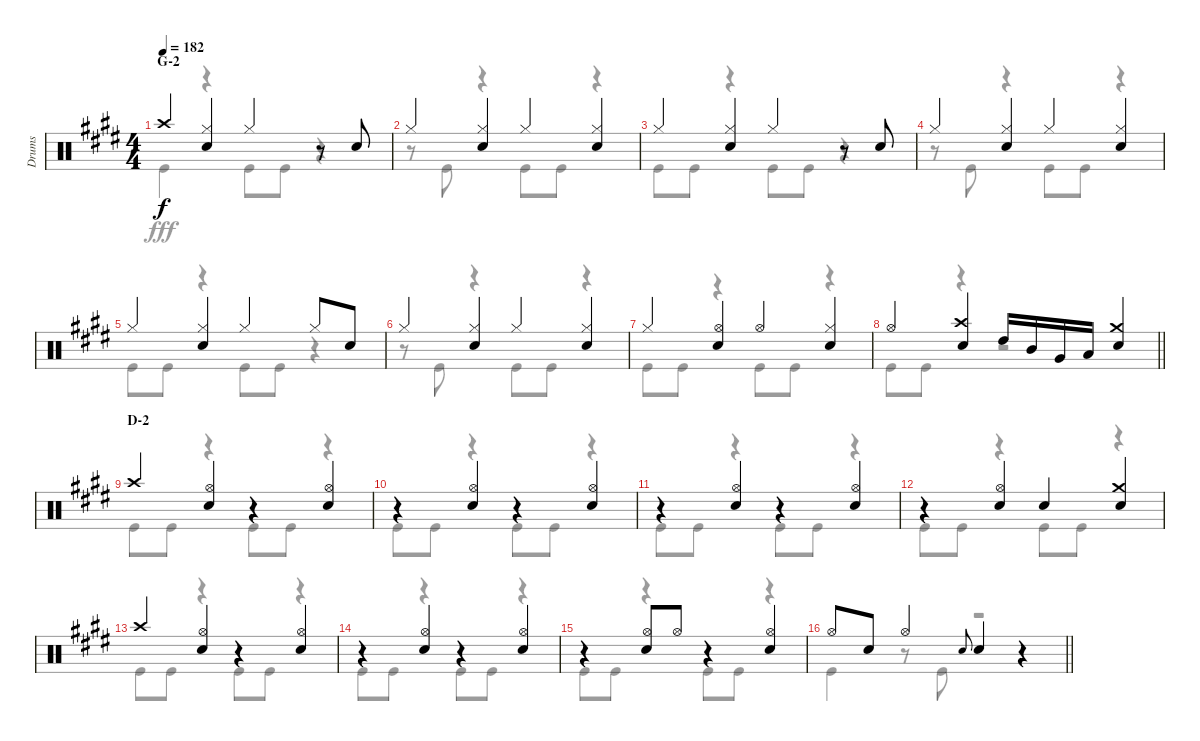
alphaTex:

\track ("Drums" "Drums") {instrument percussion}
\staff {score}
\articulation defaults
\voice
\ts (4 4)
\section ("" "G-2")
\tempo 182
\clef neutral
\ks e "Crash high (hit)".4{dy f}
("Hi-Hat (closed)" "Snare (hit) 2").4 "Hi-Hat (closed)".4 r.8 "Snare (hit) 2".8 |
"Hi-Hat (closed)".4 ("Hi-Hat (closed)" "Snare (hit) 2").4 "Hi-Hat (closed)".4 ("Hi-Hat (closed)" "Snare (hit) 2").4 |
"Hi-Hat (closed)".4 ("Hi-Hat (closed)" "Snare (hit) 2").4 "Hi-Hat (closed)".4 r.8 "Snare (hit) 2".8 |
"Hi-Hat (closed)".4 ("Hi-Hat (closed)" "Snare (hit) 2").4 "Hi-Hat (closed)".4 ("Hi-Hat (closed)" "Snare (hit) 2").4 |
"Hi-Hat (closed)".4 ("Hi-Hat (closed)" "Snare (hit) 2").4 "Hi-Hat (closed)".4 "Hi-Hat (closed)".8 "Snare (hit) 2".8 |
"Hi-Hat (closed)".4 ("Hi-Hat (closed)" "Snare (hit) 2").4 "Hi-Hat (closed)".4 ("Hi-Hat (closed)" "Snare (hit) 2").4 |
"Hi-Hat (closed)".4 ("Hi-Hat (open)" "Snare (hit) 2").4 "Hi-Hat (open)".4 ("Hi-Hat (closed)" "Snare (hit) 2").4 |
\barLineRight lightlight "Hi-Hat (open)".4
("Crash high (hit)" "Snare (hit) 2").4 "High Tom (hit)".16 "Mid Tom (hit)".16 "Very Low Tom (hit)".16 "Low Floor Tom (hit)".16 ("Crash medium (hit)" "Snare (hit) 2").4 |
\section ("" "D-2")
"Crash high (hit)".4 ("Hi-Hat (open)" "Snare (hit) 2").4 r.4 ("Hi-Hat (open)" "Snare (hit) 2").4 |
r.4 ("Hi-Hat (open)" "Snare (hit) 2").4 r.4 ("Hi-Hat (open)" "Snare (hit) 2").4 |
r.4 ("Hi-Hat (open)" "Snare (hit) 2").4 r.4 ("Hi-Hat (open)" "Snare (hit) 2").4 |
r.4 ("Hi-Hat (open)" "Snare (hit) 2").4 "Snare (hit) 2".4 ("Crash medium (hit)" "Snare (hit) 2").4 |
"Crash high (hit)".4 ("Hi-Hat (open)" "Snare (hit) 2").4 r.4 ("Hi-Hat (open)" "Snare (hit) 2").4 |
r.4 ("Hi-Hat (open)" "Snare (hit) 2").4 r.4 ("Hi-Hat (open)" "Snare (hit) 2").4 |
r.4 ("Hi-Hat (open)" "Snare (hit) 2").8 "Hi-Hat (open)".8 r.4 ("Hi-Hat (open)" "Snare (hit) 2").4 |
\barLineRight lightlight "Hi-Hat (open)".8 "Snare (hit) 2".8 "Hi-Hat (open)".4 "Snare (hit) 2".8{gr onbeat} "Snare (hit) 2".4
r.4
\voice
\clef neutral
\ottava regular
\simile none
\ks e "Kick (hit)".4{dy fff}
r.4 "Kick (hit)".8 "Kick (hit)".8 r.4 |
r.8 "Kick (hit)".8 r.4 "Kick (hit)".8 "Kick (hit)".8 r.4 |
"Kick (hit)".8 "Kick (hit)".8 r.4 "Kick (hit)".8 "Kick (hit)".8 r.4 |
r.8 "Kick (hit)".8 r.4 "Kick (hit)".8 "Kick (hit)".8 r.4 |
"Kick (hit)".8 "Kick (hit)".8 r.4 "Kick (hit)".8 "Kick (hit)".8 r.4 |
r.8 "Kick (hit)".8 r.4 "Kick (hit)".8 "Kick (hit)".8 r.4 |
"Kick (hit)".8 "Kick (hit)".8 r.4 "Kick (hit)".8 "Kick (hit)".8 r.4 |
\barLineRight lightlight "Kick (hit)".8 "Kick (hit)".8
r.4 r.2 |
"Kick (hit)".8 "Kick (hit)".8 r.4 "Kick (hit)".8 "Kick (hit)".8 r.4 |
"Kick (hit)".8 "Kick (hit)".8 r.4 "Kick (hit)".8 "Kick (hit)".8 r.4 |
"Kick (hit)".8 "Kick (hit)".8 r.4 "Kick (hit)".8 "Kick (hit)".8 r.4 |
"Kick (hit)".8 "Kick (hit)".8 r.4 "Kick (hit)".8 "Kick (hit)".8 r.4 |
"Kick (hit)".8 "Kick (hit)".8 r.4 "Kick (hit)".8 "Kick (hit)".8 r.4 |
"Kick (hit)".8 "Kick (hit)".8 r.4 "Kick (hit)".8 "Kick (hit)".8 r.4 |
"Kick (hit)".8 "Kick (hit)".8 r.4 "Kick (hit)".8 "Kick (hit)".8 r.4 |
\barLineRight lightlight "Kick (hit)".4
r.8 "Kick (hit)".8 r.2
